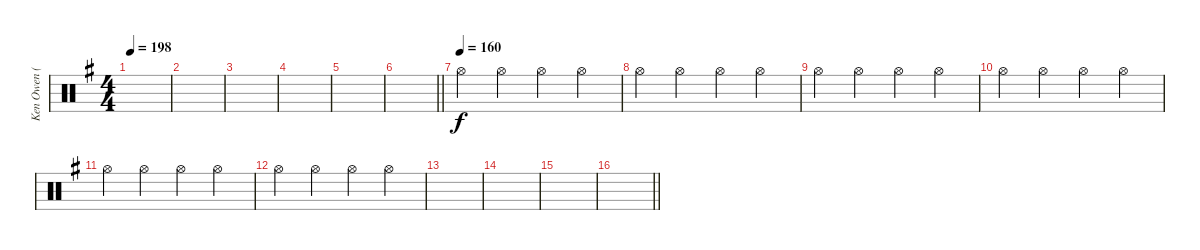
\track ("Ken Owen (Extra Cymbals)" "Ken Owen (") {instrument percussion}
\staff {score}
\articulation defaults
\ts (4 4)
\tempo 198
\clef neutral
\ks g
|
|
|
|
|
\barLineRight lightlight
|
\tempo (160)
"Hi-Hat (open)".4 "Hi-Hat (open)".4 "Hi-Hat (open)".4 "Hi-Hat (open)".4 |
"Hi-Hat (open)".4 "Hi-Hat (open)".4 "Hi-Hat (open)".4 "Hi-Hat (open)".4 |
"Hi-Hat (open)".4 "Hi-Hat (open)".4 "Hi-Hat (open)".4 "Hi-Hat (open)".4 |
"Hi-Hat (open)".4 "Hi-Hat (open)".4 "Hi-Hat (open)".4 "Hi-Hat (open)".4 |
"Hi-Hat (open)".4 "Hi-Hat (open)".4 "Hi-Hat (open)".4 "Hi-Hat (open)".4 |
"Hi-Hat (open)".4 "Hi-Hat (open)".4 "Hi-Hat (open)".4 "Hi-Hat (open)".4 |
|
|
|
\barLineRight lightlight
